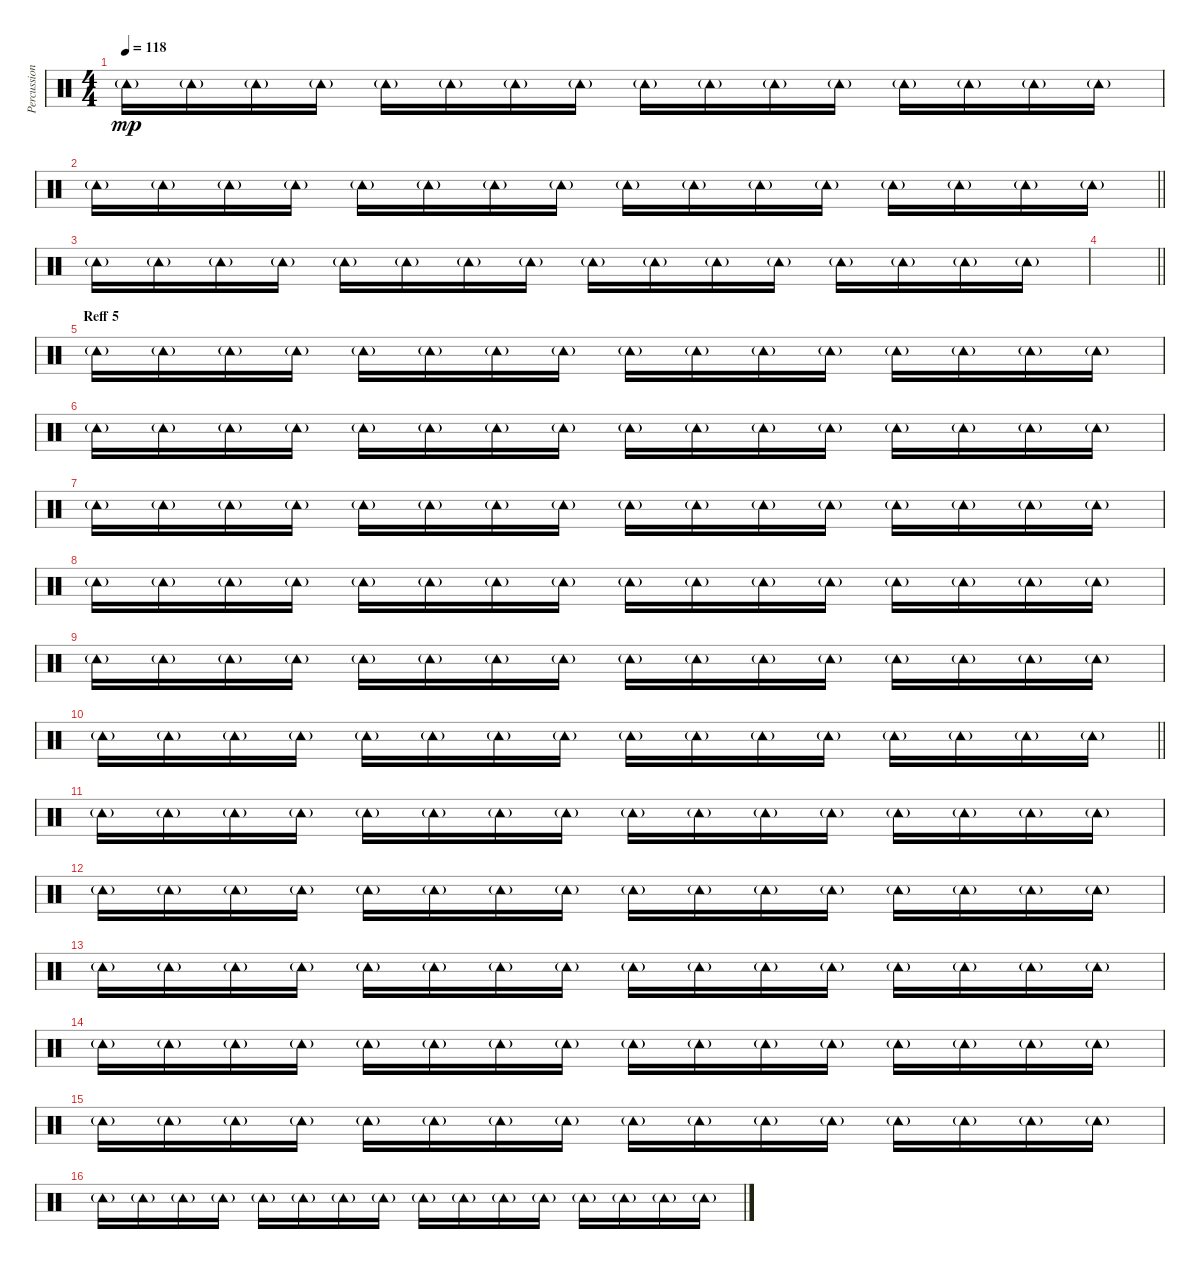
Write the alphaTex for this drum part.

\track ("Percussion 2" "Percussion") {instrument percussion}
\staff {score}
\articulation defaults
\ts (4 4)
\tempo 118
\clef neutral
\ks c "Tambourine (hit)"{g}.16{dy mp} "Tambourine (hit)"{g}.16 "Tambourine (hit)"{g}.16 "Tambourine (hit)"{g}.16 "Tambourine (hit)"{g}.16 "Tambourine (hit)"{g}.16 "Tambourine (hit)"{g}.16 "Tambourine (hit)"{g}.16 "Tambourine (hit)"{g}.16 "Tambourine (hit)"{g}.16 "Tambourine (hit)"{g}.16 "Tambourine (hit)"{g}.16 "Tambourine (hit)"{g}.16 "Tambourine (hit)"{g}.16 "Tambourine (hit)"{g}.16 "Tambourine (hit)"{g}.16
|
\barLineRight lightlight "Tambourine (hit)"{g}.16 "Tambourine (hit)"{g}.16 "Tambourine (hit)"{g}.16 "Tambourine (hit)"{g}.16 "Tambourine (hit)"{g}.16 "Tambourine (hit)"{g}.16 "Tambourine (hit)"{g}.16 "Tambourine (hit)"{g}.16 "Tambourine (hit)"{g}.16 "Tambourine (hit)"{g}.16 "Tambourine (hit)"{g}.16 "Tambourine (hit)"{g}.16 "Tambourine (hit)"{g}.16 "Tambourine (hit)"{g}.16 "Tambourine (hit)"{g}.16 "Tambourine (hit)"{g}.16
|
"Tambourine (hit)"{g}.16 "Tambourine (hit)"{g}.16 "Tambourine (hit)"{g}.16 "Tambourine (hit)"{g}.16 "Tambourine (hit)"{g}.16 "Tambourine (hit)"{g}.16 "Tambourine (hit)"{g}.16 "Tambourine (hit)"{g}.16 "Tambourine (hit)"{g}.16 "Tambourine (hit)"{g}.16 "Tambourine (hit)"{g}.16 "Tambourine (hit)"{g}.16 "Tambourine (hit)"{g}.16 "Tambourine (hit)"{g}.16 "Tambourine (hit)"{g}.16 "Tambourine (hit)"{g}.16 |
\barLineRight lightlight
|
\section ("" "Reff 5")
"Tambourine (hit)"{g}.16 "Tambourine (hit)"{g}.16 "Tambourine (hit)"{g}.16 "Tambourine (hit)"{g}.16 "Tambourine (hit)"{g}.16 "Tambourine (hit)"{g}.16 "Tambourine (hit)"{g}.16 "Tambourine (hit)"{g}.16 "Tambourine (hit)"{g}.16 "Tambourine (hit)"{g}.16 "Tambourine (hit)"{g}.16 "Tambourine (hit)"{g}.16 "Tambourine (hit)"{g}.16 "Tambourine (hit)"{g}.16 "Tambourine (hit)"{g}.16 "Tambourine (hit)"{g}.16 |
"Tambourine (hit)"{g}.16 "Tambourine (hit)"{g}.16 "Tambourine (hit)"{g}.16 "Tambourine (hit)"{g}.16 "Tambourine (hit)"{g}.16 "Tambourine (hit)"{g}.16 "Tambourine (hit)"{g}.16 "Tambourine (hit)"{g}.16 "Tambourine (hit)"{g}.16 "Tambourine (hit)"{g}.16 "Tambourine (hit)"{g}.16 "Tambourine (hit)"{g}.16 "Tambourine (hit)"{g}.16 "Tambourine (hit)"{g}.16 "Tambourine (hit)"{g}.16 "Tambourine (hit)"{g}.16 |
"Tambourine (hit)"{g}.16 "Tambourine (hit)"{g}.16 "Tambourine (hit)"{g}.16 "Tambourine (hit)"{g}.16 "Tambourine (hit)"{g}.16 "Tambourine (hit)"{g}.16 "Tambourine (hit)"{g}.16 "Tambourine (hit)"{g}.16 "Tambourine (hit)"{g}.16 "Tambourine (hit)"{g}.16 "Tambourine (hit)"{g}.16 "Tambourine (hit)"{g}.16 "Tambourine (hit)"{g}.16 "Tambourine (hit)"{g}.16 "Tambourine (hit)"{g}.16 "Tambourine (hit)"{g}.16 |
"Tambourine (hit)"{g}.16 "Tambourine (hit)"{g}.16 "Tambourine (hit)"{g}.16 "Tambourine (hit)"{g}.16 "Tambourine (hit)"{g}.16 "Tambourine (hit)"{g}.16 "Tambourine (hit)"{g}.16 "Tambourine (hit)"{g}.16 "Tambourine (hit)"{g}.16 "Tambourine (hit)"{g}.16 "Tambourine (hit)"{g}.16 "Tambourine (hit)"{g}.16 "Tambourine (hit)"{g}.16 "Tambourine (hit)"{g}.16 "Tambourine (hit)"{g}.16 "Tambourine (hit)"{g}.16 |
"Tambourine (hit)"{g}.16 "Tambourine (hit)"{g}.16 "Tambourine (hit)"{g}.16 "Tambourine (hit)"{g}.16 "Tambourine (hit)"{g}.16 "Tambourine (hit)"{g}.16 "Tambourine (hit)"{g}.16 "Tambourine (hit)"{g}.16 "Tambourine (hit)"{g}.16 "Tambourine (hit)"{g}.16 "Tambourine (hit)"{g}.16 "Tambourine (hit)"{g}.16 "Tambourine (hit)"{g}.16 "Tambourine (hit)"{g}.16 "Tambourine (hit)"{g}.16 "Tambourine (hit)"{g}.16 |
\barLineRight lightlight "Tambourine (hit)"{g}.16 "Tambourine (hit)"{g}.16 "Tambourine (hit)"{g}.16 "Tambourine (hit)"{g}.16 "Tambourine (hit)"{g}.16 "Tambourine (hit)"{g}.16 "Tambourine (hit)"{g}.16 "Tambourine (hit)"{g}.16 "Tambourine (hit)"{g}.16 "Tambourine (hit)"{g}.16 "Tambourine (hit)"{g}.16 "Tambourine (hit)"{g}.16 "Tambourine (hit)"{g}.16 "Tambourine (hit)"{g}.16 "Tambourine (hit)"{g}.16 "Tambourine (hit)"{g}.16
|
"Tambourine (hit)"{g}.16 "Tambourine (hit)"{g}.16 "Tambourine (hit)"{g}.16 "Tambourine (hit)"{g}.16 "Tambourine (hit)"{g}.16 "Tambourine (hit)"{g}.16 "Tambourine (hit)"{g}.16 "Tambourine (hit)"{g}.16 "Tambourine (hit)"{g}.16 "Tambourine (hit)"{g}.16 "Tambourine (hit)"{g}.16 "Tambourine (hit)"{g}.16 "Tambourine (hit)"{g}.16 "Tambourine (hit)"{g}.16 "Tambourine (hit)"{g}.16 "Tambourine (hit)"{g}.16 |
"Tambourine (hit)"{g}.16 "Tambourine (hit)"{g}.16 "Tambourine (hit)"{g}.16 "Tambourine (hit)"{g}.16 "Tambourine (hit)"{g}.16 "Tambourine (hit)"{g}.16 "Tambourine (hit)"{g}.16 "Tambourine (hit)"{g}.16 "Tambourine (hit)"{g}.16 "Tambourine (hit)"{g}.16 "Tambourine (hit)"{g}.16 "Tambourine (hit)"{g}.16 "Tambourine (hit)"{g}.16 "Tambourine (hit)"{g}.16 "Tambourine (hit)"{g}.16 "Tambourine (hit)"{g}.16 |
"Tambourine (hit)"{g}.16 "Tambourine (hit)"{g}.16 "Tambourine (hit)"{g}.16 "Tambourine (hit)"{g}.16 "Tambourine (hit)"{g}.16 "Tambourine (hit)"{g}.16 "Tambourine (hit)"{g}.16 "Tambourine (hit)"{g}.16 "Tambourine (hit)"{g}.16 "Tambourine (hit)"{g}.16 "Tambourine (hit)"{g}.16 "Tambourine (hit)"{g}.16 "Tambourine (hit)"{g}.16 "Tambourine (hit)"{g}.16 "Tambourine (hit)"{g}.16 "Tambourine (hit)"{g}.16 |
"Tambourine (hit)"{g}.16 "Tambourine (hit)"{g}.16 "Tambourine (hit)"{g}.16 "Tambourine (hit)"{g}.16 "Tambourine (hit)"{g}.16 "Tambourine (hit)"{g}.16 "Tambourine (hit)"{g}.16 "Tambourine (hit)"{g}.16 "Tambourine (hit)"{g}.16 "Tambourine (hit)"{g}.16 "Tambourine (hit)"{g}.16 "Tambourine (hit)"{g}.16 "Tambourine (hit)"{g}.16 "Tambourine (hit)"{g}.16 "Tambourine (hit)"{g}.16 "Tambourine (hit)"{g}.16 |
"Tambourine (hit)"{g}.16 "Tambourine (hit)"{g}.16 "Tambourine (hit)"{g}.16 "Tambourine (hit)"{g}.16 "Tambourine (hit)"{g}.16 "Tambourine (hit)"{g}.16 "Tambourine (hit)"{g}.16 "Tambourine (hit)"{g}.16 "Tambourine (hit)"{g}.16 "Tambourine (hit)"{g}.16 "Tambourine (hit)"{g}.16 "Tambourine (hit)"{g}.16 "Tambourine (hit)"{g}.16 "Tambourine (hit)"{g}.16 "Tambourine (hit)"{g}.16 "Tambourine (hit)"{g}.16 |
"Tambourine (hit)"{g}.16 "Tambourine (hit)"{g}.16 "Tambourine (hit)"{g}.16 "Tambourine (hit)"{g}.16 "Tambourine (hit)"{g}.16 "Tambourine (hit)"{g}.16 "Tambourine (hit)"{g}.16 "Tambourine (hit)"{g}.16 "Tambourine (hit)"{g}.16 "Tambourine (hit)"{g}.16 "Tambourine (hit)"{g}.16 "Tambourine (hit)"{g}.16 "Tambourine (hit)"{g}.16 "Tambourine (hit)"{g}.16 "Tambourine (hit)"{g}.16 "Tambourine (hit)"{g}.16
